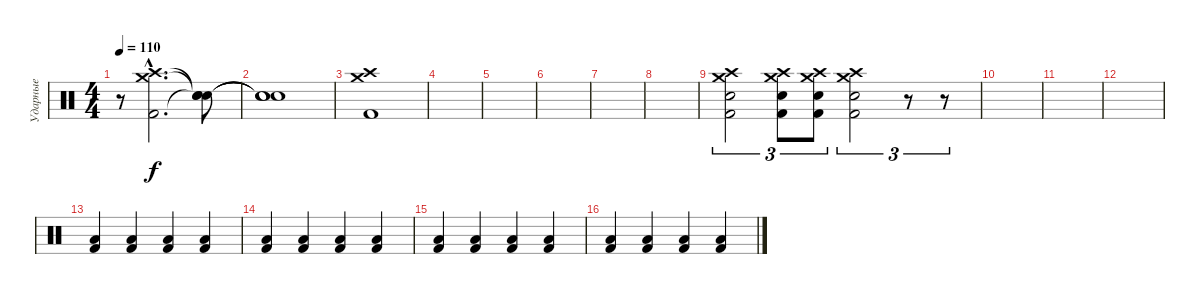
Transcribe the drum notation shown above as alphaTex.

\track ("Ударные" "Ударные") {instrument percussion}
\staff {score}
\articulation defaults
\ts (4 4)
\tempo 110
\clef neutral
\ks c
r.8{dy f} ("Crash medium (hit)"{hac} "Crash high (hit)"{hac} "Kick (hit) 2"{hac}).2{d} ("Snare (hit)"{t} "Snare (hit)"{t} "Snare (hit)"{t}).8 |
("Snare (hit)"{t} "Snare (hit)"{t} "Snare (hit)"{t}).1 |
("Crash medium (hit)" "Crash high (hit)" "Kick (hit) 2").1 |
|
|
|
|
|
("Electric Snare (hit)" "Crash medium (hit)" "Crash high (hit)" "Kick (hit) 2").2{tu (3 2)} ("Electric Snare (hit)" "Crash medium (hit)" "Crash high (hit)" "Kick (hit) 2").8{tu (3 2)} ("Electric Snare (hit)" "Crash medium (hit)" "Crash high (hit)" "Kick (hit) 2").8{tu (3 2)} ("Electric Snare (hit)" "Crash medium (hit)" "Crash high (hit)" "Kick (hit) 2").2{tu (3 2)} r.8{tu (3 2)} r.8{tu (3 2)} |
|
|
|
("Kick (hit) 2" "Low Tom (hit)").4 ("Kick (hit) 2" "Low Tom (hit)").4 ("Kick (hit) 2" "Low Tom (hit)").4 ("Kick (hit) 2" "Low Tom (hit)").4 |
("Kick (hit) 2" "Low Tom (hit)").4 ("Kick (hit) 2" "Low Tom (hit)").4 ("Kick (hit) 2" "Low Tom (hit)").4 ("Kick (hit) 2" "Low Tom (hit)").4 |
("Kick (hit) 2" "Low Tom (hit)").4 ("Kick (hit) 2" "Low Tom (hit)").4 ("Kick (hit) 2" "Low Tom (hit)").4 ("Kick (hit) 2" "Low Tom (hit)").4 |
("Kick (hit) 2" "Low Tom (hit)").4 ("Kick (hit) 2" "Low Tom (hit)").4 ("Kick (hit) 2" "Low Tom (hit)").4 ("Kick (hit) 2" "Low Tom (hit)").4
